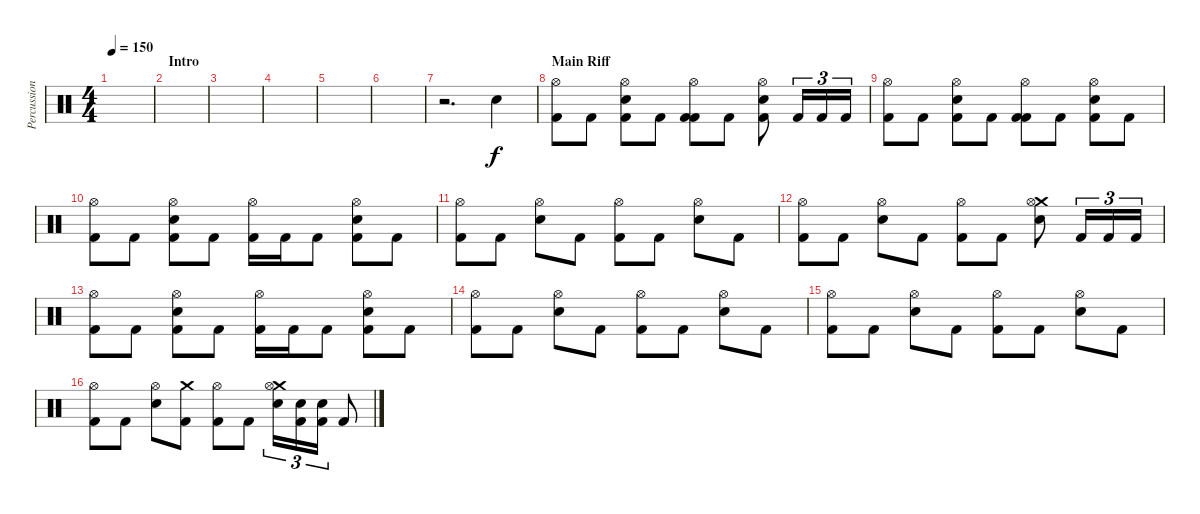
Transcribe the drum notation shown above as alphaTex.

\track ("Percussion" "Percussion") {instrument percussion}
\staff {score}
\articulation defaults
\ts (4 4)
\tempo 150
\clef neutral
\ks c
|
\section ("" "Intro")
|
|
|
|
|
r.2{d} "Electric Snare (hit)".4 |
\section ("" "Main Riff")
("Kick (hit) 2" "Hi-Hat (open)").8 "Kick (hit) 2".8 ("Electric Snare (hit)" "Kick (hit) 2" "Hi-Hat (open)").8 "Kick (hit) 2".8 ("Kick (hit) 2" "Kick (hit) 2" "Hi-Hat (open)").8 "Kick (hit) 2".8 ("Electric Snare (hit)" "Kick (hit) 2" "Hi-Hat (open)").8 "Kick (hit) 2".16{tu (3 2)} "Kick (hit) 2".16{tu (3 2)} "Kick (hit) 2".16{tu (3 2)} |
("Kick (hit) 2" "Hi-Hat (open)").8 "Kick (hit) 2".8 ("Electric Snare (hit)" "Kick (hit) 2" "Hi-Hat (open)").8 "Kick (hit) 2".8 ("Kick (hit) 2" "Kick (hit) 2" "Hi-Hat (open)").8 "Kick (hit) 2".8 ("Electric Snare (hit)" "Kick (hit) 2" "Hi-Hat (open)").8 "Kick (hit) 2".8 |
("Kick (hit) 2" "Hi-Hat (open)").8 "Kick (hit) 2".8 ("Electric Snare (hit)" "Kick (hit) 2" "Hi-Hat (open)").8 "Kick (hit) 2".8 ("Kick (hit) 2" "Hi-Hat (open)").16 "Kick (hit) 2".16 "Kick (hit) 2".8 ("Electric Snare (hit)" "Kick (hit) 2" "Hi-Hat (open)").8 "Kick (hit) 2".8 |
("Kick (hit) 2" "Hi-Hat (open)").8 "Kick (hit) 2".8 ("Electric Snare (hit)" "Hi-Hat (open)").8 "Kick (hit) 2".8 ("Kick (hit) 2" "Hi-Hat (open)").8 "Kick (hit) 2".8 ("Electric Snare (hit)" "Hi-Hat (open)").8 "Kick (hit) 2".8 |
("Kick (hit) 2" "Hi-Hat (open)").8 "Kick (hit) 2".8 ("Electric Snare (hit)" "Hi-Hat (open)").8 "Kick (hit) 2".8 ("Kick (hit) 2" "Hi-Hat (open)").8 "Kick (hit) 2".8 ("Electric Snare (hit)" "Crash medium (hit)" "Hi-Hat (open)").8 "Kick (hit) 2".16{tu (3 2)} "Kick (hit) 2".16{tu (3 2)} "Kick (hit) 2".16{tu (3 2)} |
("Kick (hit) 2" "Hi-Hat (open)").8 "Kick (hit) 2".8 ("Electric Snare (hit)" "Kick (hit) 2" "Hi-Hat (open)").8 "Kick (hit) 2".8 ("Kick (hit) 2" "Hi-Hat (open)").16 "Kick (hit) 2".16 "Kick (hit) 2".8 ("Electric Snare (hit)" "Kick (hit) 2" "Hi-Hat (open)").8 "Kick (hit) 2".8 |
("Kick (hit) 2" "Hi-Hat (open)").8 "Kick (hit) 2".8 ("Electric Snare (hit)" "Hi-Hat (open)").8 "Kick (hit) 2".8 ("Kick (hit) 2" "Hi-Hat (open)").8 "Kick (hit) 2".8 ("Electric Snare (hit)" "Hi-Hat (open)").8 "Kick (hit) 2".8 |
("Kick (hit) 2" "Hi-Hat (open)").8 "Kick (hit) 2".8 ("Electric Snare (hit)" "Hi-Hat (open)").8 "Kick (hit) 2".8 ("Kick (hit) 2" "Hi-Hat (open)").8 "Kick (hit) 2".8 ("Electric Snare (hit)" "Hi-Hat (open)").8 "Kick (hit) 2".8 |
("Kick (hit) 2" "Hi-Hat (open)").8 "Kick (hit) 2".8 ("Electric Snare (hit)" "Hi-Hat (open)").8 ("Kick (hit) 2" "Crash medium (hit)").8 ("Kick (hit) 2" "Hi-Hat (open)").8 "Kick (hit) 2".8 ("Electric Snare (hit)" "Crash medium (hit)" "Hi-Hat (open)").16{tu (3 2)} ("Kick (hit) 2" "Electric Snare (hit)").16{tu (3 2)} ("Kick (hit) 2" "Electric Snare (hit)").16{tu (3 2)} "Kick (hit) 2".8
